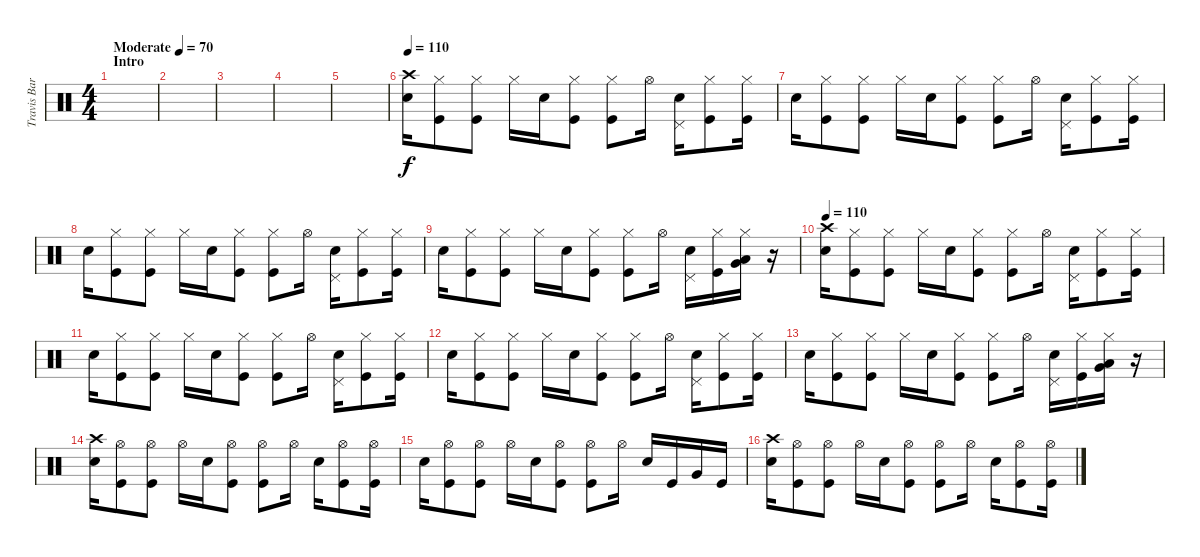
\track ("Travis Barker (Drums)" "Travis Bar") {instrument percussion bank 10}
\staff {score}
\articulation defaults
\ts (4 4)
\section ("" "Intro")
\tempo (70 "Moderate")
\clef neutral
\ks c
|
|
|
|
|
\tempo 110
("Crash high (hit)" "Snare (hit) 2").16 ("Hi-Hat (closed)" "Kick (hit)").8 ("Hi-Hat (closed)" "Kick (hit)").8 "Hi-Hat (closed)".16 "Snare (hit) 2".16 ("Hi-Hat (closed)" "Kick (hit)").8 ("Hi-Hat (closed)" "Kick (hit)").8 "Hi-Hat (open)".16 ("Pedal Hi-Hat (hit)" "Snare (hit) 2").16 ("Hi-Hat (closed)" "Kick (hit)").8 ("Hi-Hat (closed)" "Kick (hit)").16 |
"Snare (hit) 2".16 ("Hi-Hat (closed)" "Kick (hit)").8 ("Hi-Hat (closed)" "Kick (hit)").8 "Hi-Hat (closed)".16 "Snare (hit) 2".16 ("Hi-Hat (closed)" "Kick (hit)").8 ("Hi-Hat (closed)" "Kick (hit)").8 "Hi-Hat (open)".16 ("Pedal Hi-Hat (hit)" "Snare (hit) 2").16 ("Hi-Hat (closed)" "Kick (hit)").8 ("Hi-Hat (closed)" "Kick (hit)").16 |
"Snare (hit) 2".16 ("Hi-Hat (closed)" "Kick (hit)").8 ("Hi-Hat (closed)" "Kick (hit)").8 "Hi-Hat (closed)".16 "Snare (hit) 2".16 ("Hi-Hat (closed)" "Kick (hit)").8 ("Hi-Hat (closed)" "Kick (hit)").8 "Hi-Hat (open)".16 ("Pedal Hi-Hat (hit)" "Snare (hit) 2").16 ("Hi-Hat (closed)" "Kick (hit)").8 ("Hi-Hat (closed)" "Kick (hit)").16 |
"Snare (hit) 2".16 ("Hi-Hat (closed)" "Kick (hit)").8 ("Hi-Hat (closed)" "Kick (hit)").8 "Hi-Hat (closed)".16 "Snare (hit) 2".16 ("Hi-Hat (closed)" "Kick (hit)").8 ("Hi-Hat (closed)" "Kick (hit)").8 "Hi-Hat (open)".16 ("Pedal Hi-Hat (hit)" "Snare (hit) 2").16 ("Hi-Hat (closed)" "Kick (hit)").16 ("Hi-Hat (closed)" "Very Low Tom (hit)" "Low Floor Tom (hit)").16 r.16 |
\tempo 110
("Crash high (hit)" "Snare (hit) 2").16 ("Hi-Hat (closed)" "Kick (hit)").8 ("Hi-Hat (closed)" "Kick (hit)").8 "Hi-Hat (closed)".16 "Snare (hit) 2".16 ("Hi-Hat (closed)" "Kick (hit)").8 ("Hi-Hat (closed)" "Kick (hit)").8 "Hi-Hat (open)".16 ("Pedal Hi-Hat (hit)" "Snare (hit) 2").16 ("Hi-Hat (closed)" "Kick (hit)").8 ("Hi-Hat (closed)" "Kick (hit)").16 |
"Snare (hit) 2".16 ("Hi-Hat (closed)" "Kick (hit)").8 ("Hi-Hat (closed)" "Kick (hit)").8 "Hi-Hat (closed)".16 "Snare (hit) 2".16 ("Hi-Hat (closed)" "Kick (hit)").8 ("Hi-Hat (closed)" "Kick (hit)").8 "Hi-Hat (open)".16 ("Pedal Hi-Hat (hit)" "Snare (hit) 2").16 ("Hi-Hat (closed)" "Kick (hit)").8 ("Hi-Hat (closed)" "Kick (hit)").16 |
"Snare (hit) 2".16 ("Hi-Hat (closed)" "Kick (hit)").8 ("Hi-Hat (closed)" "Kick (hit)").8 "Hi-Hat (closed)".16 "Snare (hit) 2".16 ("Hi-Hat (closed)" "Kick (hit)").8 ("Hi-Hat (closed)" "Kick (hit)").8 "Hi-Hat (open)".16 ("Pedal Hi-Hat (hit)" "Snare (hit) 2").16 ("Hi-Hat (closed)" "Kick (hit)").8 ("Hi-Hat (closed)" "Kick (hit)").16 |
"Snare (hit) 2".16 ("Hi-Hat (closed)" "Kick (hit)").8 ("Hi-Hat (closed)" "Kick (hit)").8 "Hi-Hat (closed)".16 "Snare (hit) 2".16 ("Hi-Hat (closed)" "Kick (hit)").8 ("Hi-Hat (closed)" "Kick (hit)").8 "Hi-Hat (open)".16 ("Pedal Hi-Hat (hit)" "Snare (hit) 2").16 ("Hi-Hat (closed)" "Kick (hit)").16 ("Hi-Hat (closed)" "Very Low Tom (hit)" "Low Floor Tom (hit)").16 r.16 |
("Crash high (hit)" "Snare (hit) 2").16 ("Hi-Hat (open)" "Kick (hit)").8 ("Hi-Hat (open)" "Kick (hit)").8 "Hi-Hat (open)".16 "Snare (hit) 2".16 ("Hi-Hat (open)" "Kick (hit)").8 ("Hi-Hat (open)" "Kick (hit)").8 "Hi-Hat (open)".16 "Snare (hit) 2".16 ("Hi-Hat (open)" "Kick (hit)").8 ("Hi-Hat (open)" "Kick (hit)").16 |
"Snare (hit) 2".16 ("Hi-Hat (open)" "Kick (hit)").8 ("Hi-Hat (open)" "Kick (hit)").8 "Hi-Hat (open)".16 "Snare (hit) 2".16 ("Hi-Hat (open)" "Kick (hit)").8 ("Hi-Hat (open)" "Kick (hit)").8 "Hi-Hat (open)".16 "Snare (hit) 2".16 "Kick (hit)".16 "Very Low Tom (hit)".16 "Kick (hit)".16 |
("Crash high (hit)" "Snare (hit) 2").16 ("Hi-Hat (open)" "Kick (hit)").8 ("Hi-Hat (open)" "Kick (hit)").8 "Hi-Hat (open)".16 "Snare (hit) 2".16 ("Hi-Hat (open)" "Kick (hit)").8 ("Hi-Hat (open)" "Kick (hit)").8 "Hi-Hat (open)".16 "Snare (hit) 2".16 ("Hi-Hat (open)" "Kick (hit)").8 ("Hi-Hat (open)" "Kick (hit)").16
